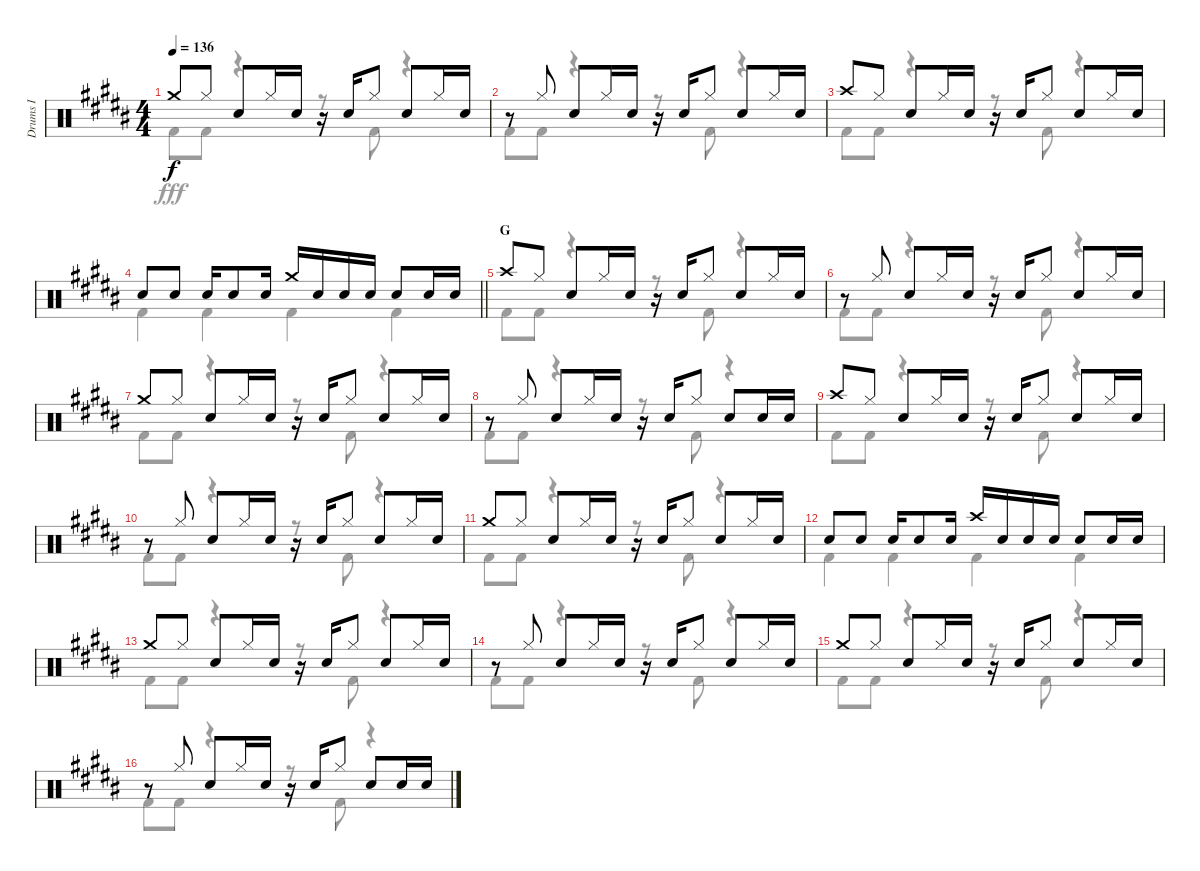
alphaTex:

\track ("Drums I" "Drums I") {instrument percussion}
\staff {score}
\articulation defaults
\voice
\ts (4 4)
\tempo 136
\clef neutral
\ks b "Crash medium (hit)".8{dy f} "Hi-Hat (closed)".8 "Snare (hit) 2".8 "Hi-Hat (closed)".16 "Snare (hit) 2".16
r.16 "Snare (hit) 2".16 "Hi-Hat (closed)".8 "Snare (hit) 2".8 "Hi-Hat (closed)".16 "Snare (hit) 2".16 |
r.8 "Hi-Hat (closed)".8 "Snare (hit) 2".8 "Hi-Hat (closed)".16 "Snare (hit) 2".16 r.16 "Snare (hit) 2".16 "Hi-Hat (closed)".8 "Snare (hit) 2".8 "Hi-Hat (closed)".16 "Snare (hit) 2".16 |
"Crash high (hit)".8 "Hi-Hat (closed)".8 "Snare (hit) 2".8 "Hi-Hat (closed)".16 "Snare (hit) 2".16 r.16 "Snare (hit) 2".16 "Hi-Hat (closed)".8 "Snare (hit) 2".8 "Hi-Hat (closed)".16 "Snare (hit) 2".16 |
\barLineRight lightlight "Snare (hit) 2".8 "Snare (hit) 2".8 "Snare (hit) 2".16 "Snare (hit) 2".8 "Snare (hit) 2".16 "Crash medium (hit)".16 "Snare (hit) 2".16 "Snare (hit) 2".16 "Snare (hit) 2".16 "Snare (hit) 2".8 "Snare (hit) 2".16 "Snare (hit) 2".16
|
\section ("" "G")
"Crash high (hit)".8 "Hi-Hat (closed)".8 "Snare (hit) 2".8 "Hi-Hat (closed)".16 "Snare (hit) 2".16 r.16 "Snare (hit) 2".16 "Hi-Hat (closed)".8 "Snare (hit) 2".8 "Hi-Hat (closed)".16 "Snare (hit) 2".16 |
r.8 "Hi-Hat (closed)".8 "Snare (hit) 2".8 "Hi-Hat (closed)".16 "Snare (hit) 2".16 r.16 "Snare (hit) 2".16 "Hi-Hat (closed)".8 "Snare (hit) 2".8 "Hi-Hat (closed)".16 "Snare (hit) 2".16 |
"Crash medium (hit)".8 "Hi-Hat (closed)".8 "Snare (hit) 2".8 "Hi-Hat (closed)".16 "Snare (hit) 2".16 r.16 "Snare (hit) 2".16 "Hi-Hat (closed)".8 "Snare (hit) 2".8 "Hi-Hat (closed)".16 "Snare (hit) 2".16 |
r.8 "Hi-Hat (closed)".8 "Snare (hit) 2".8 "Hi-Hat (closed)".16 "Snare (hit) 2".16 r.16 "Snare (hit) 2".16 "Hi-Hat (closed)".8 "Snare (hit) 2".8 "Snare (hit) 2".16 "Snare (hit) 2".16 |
"Crash high (hit)".8 "Hi-Hat (closed)".8 "Snare (hit) 2".8 "Hi-Hat (closed)".16 "Snare (hit) 2".16 r.16 "Snare (hit) 2".16 "Hi-Hat (closed)".8 "Snare (hit) 2".8 "Hi-Hat (closed)".16 "Snare (hit) 2".16 |
r.8 "Hi-Hat (closed)".8 "Snare (hit) 2".8 "Hi-Hat (closed)".16 "Snare (hit) 2".16 r.16 "Snare (hit) 2".16 "Hi-Hat (closed)".8 "Snare (hit) 2".8 "Hi-Hat (closed)".16 "Snare (hit) 2".16 |
"Crash medium (hit)".8 "Hi-Hat (closed)".8 "Snare (hit) 2".8 "Hi-Hat (closed)".16 "Snare (hit) 2".16 r.16 "Snare (hit) 2".16 "Hi-Hat (closed)".8 "Snare (hit) 2".8 "Hi-Hat (closed)".16 "Snare (hit) 2".16 |
"Snare (hit) 2".8 "Snare (hit) 2".8 "Snare (hit) 2".16 "Snare (hit) 2".8 "Snare (hit) 2".16 "Crash high (hit)".16 "Snare (hit) 2".16 "Snare (hit) 2".16 "Snare (hit) 2".16 "Snare (hit) 2".8 "Snare (hit) 2".16 "Snare (hit) 2".16 |
"Crash medium (hit)".8 "Hi-Hat (closed)".8 "Snare (hit) 2".8 "Hi-Hat (closed)".16 "Snare (hit) 2".16 r.16 "Snare (hit) 2".16 "Hi-Hat (closed)".8 "Snare (hit) 2".8 "Hi-Hat (closed)".16 "Snare (hit) 2".16 |
r.8 "Hi-Hat (closed)".8 "Snare (hit) 2".8 "Hi-Hat (closed)".16 "Snare (hit) 2".16 r.16 "Snare (hit) 2".16 "Hi-Hat (closed)".8 "Snare (hit) 2".8 "Hi-Hat (closed)".16 "Snare (hit) 2".16 |
"Crash medium (hit)".8 "Hi-Hat (closed)".8 "Snare (hit) 2".8 "Hi-Hat (closed)".16 "Snare (hit) 2".16 r.16 "Snare (hit) 2".16 "Hi-Hat (closed)".8 "Snare (hit) 2".8 "Hi-Hat (closed)".16 "Snare (hit) 2".16 |
r.8 "Hi-Hat (closed)".8 "Snare (hit) 2".8 "Hi-Hat (closed)".16 "Snare (hit) 2".16 r.16 "Snare (hit) 2".16 "Hi-Hat (closed)".8 "Snare (hit) 2".8 "Snare (hit) 2".16 "Snare (hit) 2".16
\voice
\clef neutral
\ottava regular
\simile none
\ks b "Kick (hit) 2".8{dy fff} "Kick (hit) 2".8
r.4 r.8 "Kick (hit) 2".8 r.4 |
"Kick (hit) 2".8 "Kick (hit) 2".8 r.4 r.8 "Kick (hit) 2".8 r.4 |
"Kick (hit) 2".8 "Kick (hit) 2".8 r.4 r.8 "Kick (hit) 2".8 r.4 |
\barLineRight lightlight "Kick (hit) 2".4 "Kick (hit) 2".4 "Kick (hit) 2".4 "Kick (hit) 2".4
|
"Kick (hit) 2".8 "Kick (hit) 2".8 r.4 r.8 "Kick (hit) 2".8 r.4 |
"Kick (hit) 2".8 "Kick (hit) 2".8 r.4 r.8 "Kick (hit) 2".8 r.4 |
"Kick (hit) 2".8 "Kick (hit) 2".8 r.4 r.8 "Kick (hit) 2".8 r.4 |
"Kick (hit) 2".8 "Kick (hit) 2".8 r.4 r.8 "Kick (hit) 2".8 r.4 |
"Kick (hit) 2".8 "Kick (hit) 2".8 r.4 r.8 "Kick (hit) 2".8 r.4 |
"Kick (hit) 2".8 "Kick (hit) 2".8 r.4 r.8 "Kick (hit) 2".8 r.4 |
"Kick (hit) 2".8 "Kick (hit) 2".8 r.4 r.8 "Kick (hit) 2".8 r.4 |
"Kick (hit) 2".4 "Kick (hit) 2".4 "Kick (hit) 2".4 "Kick (hit) 2".4 |
"Kick (hit) 2".8 "Kick (hit) 2".8 r.4 r.8 "Kick (hit) 2".8 r.4 |
"Kick (hit) 2".8 "Kick (hit) 2".8 r.4 r.8 "Kick (hit) 2".8 r.4 |
"Kick (hit) 2".8 "Kick (hit) 2".8 r.4 r.8 "Kick (hit) 2".8 r.4 |
"Kick (hit) 2".8 "Kick (hit) 2".8 r.4 r.8 "Kick (hit) 2".8 r.4
